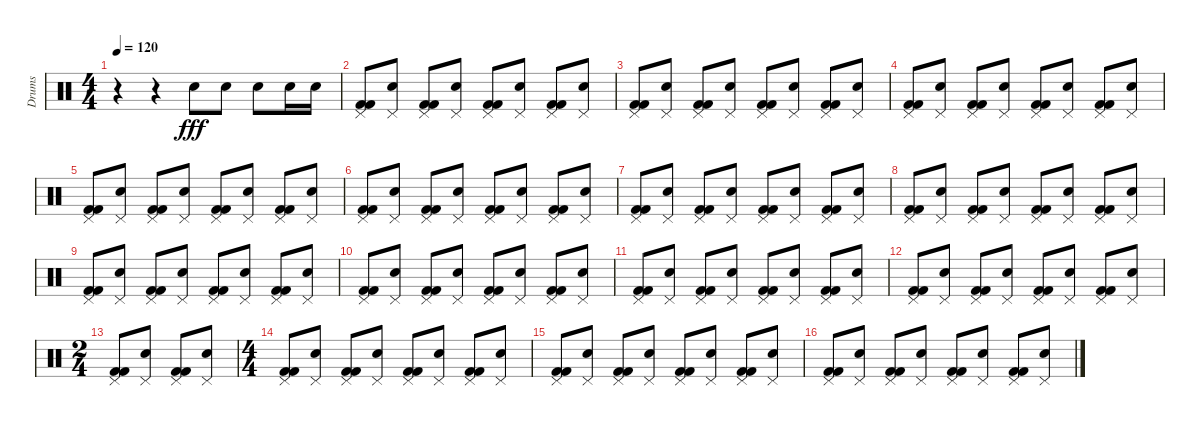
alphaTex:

\track ("Drums" "Drums") {instrument percussion}
\staff {score}
\articulation defaults
\ts (4 4)
\tempo 120
\clef neutral
\ks c
r.4{dy fff} r.4 "Electric Snare (hit)".8 "Electric Snare (hit)".8 "Electric Snare (hit)".8 "Electric Snare (hit)".16 "Electric Snare (hit)".16 |
("Pedal Hi-Hat (hit)" "Kick (hit) 2" "Kick (hit) 2").8 ("Pedal Hi-Hat (hit)" "Electric Snare (hit)").8 ("Pedal Hi-Hat (hit)" "Kick (hit) 2" "Kick (hit) 2").8 ("Pedal Hi-Hat (hit)" "Electric Snare (hit)").8 ("Pedal Hi-Hat (hit)" "Kick (hit) 2" "Kick (hit) 2").8 ("Pedal Hi-Hat (hit)" "Electric Snare (hit)").8 ("Pedal Hi-Hat (hit)" "Kick (hit) 2" "Kick (hit) 2").8 ("Pedal Hi-Hat (hit)" "Electric Snare (hit)").8 |
("Pedal Hi-Hat (hit)" "Kick (hit) 2" "Kick (hit) 2").8 ("Pedal Hi-Hat (hit)" "Electric Snare (hit)").8 ("Pedal Hi-Hat (hit)" "Kick (hit) 2" "Kick (hit) 2").8 ("Pedal Hi-Hat (hit)" "Electric Snare (hit)").8 ("Pedal Hi-Hat (hit)" "Kick (hit) 2" "Kick (hit) 2").8 ("Pedal Hi-Hat (hit)" "Electric Snare (hit)").8 ("Pedal Hi-Hat (hit)" "Kick (hit) 2" "Kick (hit) 2").8 ("Pedal Hi-Hat (hit)" "Electric Snare (hit)").8 |
("Pedal Hi-Hat (hit)" "Kick (hit) 2" "Kick (hit) 2").8 ("Pedal Hi-Hat (hit)" "Electric Snare (hit)").8 ("Pedal Hi-Hat (hit)" "Kick (hit) 2" "Kick (hit) 2").8 ("Pedal Hi-Hat (hit)" "Electric Snare (hit)").8 ("Pedal Hi-Hat (hit)" "Kick (hit) 2" "Kick (hit) 2").8 ("Pedal Hi-Hat (hit)" "Electric Snare (hit)").8 ("Pedal Hi-Hat (hit)" "Kick (hit) 2" "Kick (hit) 2").8 ("Pedal Hi-Hat (hit)" "Electric Snare (hit)").8 |
("Pedal Hi-Hat (hit)" "Kick (hit) 2" "Kick (hit) 2").8 ("Pedal Hi-Hat (hit)" "Electric Snare (hit)").8 ("Pedal Hi-Hat (hit)" "Kick (hit) 2" "Kick (hit) 2").8 ("Pedal Hi-Hat (hit)" "Electric Snare (hit)").8 ("Pedal Hi-Hat (hit)" "Kick (hit) 2" "Kick (hit) 2").8 ("Pedal Hi-Hat (hit)" "Electric Snare (hit)").8 ("Pedal Hi-Hat (hit)" "Kick (hit) 2" "Kick (hit) 2").8 ("Pedal Hi-Hat (hit)" "Electric Snare (hit)").8 |
("Pedal Hi-Hat (hit)" "Kick (hit) 2" "Kick (hit) 2").8 ("Pedal Hi-Hat (hit)" "Electric Snare (hit)").8 ("Pedal Hi-Hat (hit)" "Kick (hit) 2" "Kick (hit) 2").8 ("Pedal Hi-Hat (hit)" "Electric Snare (hit)").8 ("Pedal Hi-Hat (hit)" "Kick (hit) 2" "Kick (hit) 2").8 ("Pedal Hi-Hat (hit)" "Electric Snare (hit)").8 ("Pedal Hi-Hat (hit)" "Kick (hit) 2" "Kick (hit) 2").8 ("Pedal Hi-Hat (hit)" "Electric Snare (hit)").8 |
("Pedal Hi-Hat (hit)" "Kick (hit) 2" "Kick (hit) 2").8 ("Pedal Hi-Hat (hit)" "Electric Snare (hit)").8 ("Pedal Hi-Hat (hit)" "Kick (hit) 2" "Kick (hit) 2").8 ("Pedal Hi-Hat (hit)" "Electric Snare (hit)").8 ("Pedal Hi-Hat (hit)" "Kick (hit) 2" "Kick (hit) 2").8 ("Pedal Hi-Hat (hit)" "Electric Snare (hit)").8 ("Pedal Hi-Hat (hit)" "Kick (hit) 2" "Kick (hit) 2").8 ("Pedal Hi-Hat (hit)" "Electric Snare (hit)").8 |
("Pedal Hi-Hat (hit)" "Kick (hit) 2" "Kick (hit) 2").8 ("Pedal Hi-Hat (hit)" "Electric Snare (hit)").8 ("Pedal Hi-Hat (hit)" "Kick (hit) 2" "Kick (hit) 2").8 ("Pedal Hi-Hat (hit)" "Electric Snare (hit)").8 ("Pedal Hi-Hat (hit)" "Kick (hit) 2" "Kick (hit) 2").8 ("Pedal Hi-Hat (hit)" "Electric Snare (hit)").8 ("Pedal Hi-Hat (hit)" "Kick (hit) 2" "Kick (hit) 2").8 ("Pedal Hi-Hat (hit)" "Electric Snare (hit)").8 |
("Pedal Hi-Hat (hit)" "Kick (hit) 2" "Kick (hit) 2").8 ("Pedal Hi-Hat (hit)" "Electric Snare (hit)").8 ("Pedal Hi-Hat (hit)" "Kick (hit) 2" "Kick (hit) 2").8 ("Pedal Hi-Hat (hit)" "Electric Snare (hit)").8 ("Pedal Hi-Hat (hit)" "Kick (hit) 2" "Kick (hit) 2").8 ("Pedal Hi-Hat (hit)" "Electric Snare (hit)").8 ("Pedal Hi-Hat (hit)" "Kick (hit) 2" "Kick (hit) 2").8 ("Pedal Hi-Hat (hit)" "Electric Snare (hit)").8 |
("Pedal Hi-Hat (hit)" "Kick (hit) 2" "Kick (hit) 2").8 ("Pedal Hi-Hat (hit)" "Electric Snare (hit)").8 ("Pedal Hi-Hat (hit)" "Kick (hit) 2" "Kick (hit) 2").8 ("Pedal Hi-Hat (hit)" "Electric Snare (hit)").8 ("Pedal Hi-Hat (hit)" "Kick (hit) 2" "Kick (hit) 2").8 ("Pedal Hi-Hat (hit)" "Electric Snare (hit)").8 ("Pedal Hi-Hat (hit)" "Kick (hit) 2" "Kick (hit) 2").8 ("Pedal Hi-Hat (hit)" "Electric Snare (hit)").8 |
("Pedal Hi-Hat (hit)" "Kick (hit) 2" "Kick (hit) 2").8 ("Pedal Hi-Hat (hit)" "Electric Snare (hit)").8 ("Pedal Hi-Hat (hit)" "Kick (hit) 2" "Kick (hit) 2").8 ("Pedal Hi-Hat (hit)" "Electric Snare (hit)").8 ("Pedal Hi-Hat (hit)" "Kick (hit) 2" "Kick (hit) 2").8 ("Pedal Hi-Hat (hit)" "Electric Snare (hit)").8 ("Pedal Hi-Hat (hit)" "Kick (hit) 2" "Kick (hit) 2").8 ("Pedal Hi-Hat (hit)" "Electric Snare (hit)").8 |
("Pedal Hi-Hat (hit)" "Kick (hit) 2" "Kick (hit) 2").8 ("Pedal Hi-Hat (hit)" "Electric Snare (hit)").8 ("Pedal Hi-Hat (hit)" "Kick (hit) 2" "Kick (hit) 2").8 ("Pedal Hi-Hat (hit)" "Electric Snare (hit)").8 ("Pedal Hi-Hat (hit)" "Kick (hit) 2" "Kick (hit) 2").8 ("Pedal Hi-Hat (hit)" "Electric Snare (hit)").8 ("Pedal Hi-Hat (hit)" "Kick (hit) 2" "Kick (hit) 2").8 ("Pedal Hi-Hat (hit)" "Electric Snare (hit)").8 |
\ts (2 4)
("Pedal Hi-Hat (hit)" "Kick (hit) 2" "Kick (hit) 2").8 ("Pedal Hi-Hat (hit)" "Electric Snare (hit)").8 ("Pedal Hi-Hat (hit)" "Kick (hit) 2" "Kick (hit) 2").8 ("Pedal Hi-Hat (hit)" "Electric Snare (hit)").8 |
\ts (4 4)
("Pedal Hi-Hat (hit)" "Kick (hit) 2" "Kick (hit) 2").8 ("Pedal Hi-Hat (hit)" "Electric Snare (hit)").8 ("Pedal Hi-Hat (hit)" "Kick (hit) 2" "Kick (hit) 2").8 ("Pedal Hi-Hat (hit)" "Electric Snare (hit)").8 ("Pedal Hi-Hat (hit)" "Kick (hit) 2" "Kick (hit) 2").8 ("Pedal Hi-Hat (hit)" "Electric Snare (hit)").8 ("Pedal Hi-Hat (hit)" "Kick (hit) 2" "Kick (hit) 2").8 ("Pedal Hi-Hat (hit)" "Electric Snare (hit)").8 |
("Pedal Hi-Hat (hit)" "Kick (hit) 2" "Kick (hit) 2").8 ("Pedal Hi-Hat (hit)" "Electric Snare (hit)").8 ("Pedal Hi-Hat (hit)" "Kick (hit) 2" "Kick (hit) 2").8 ("Pedal Hi-Hat (hit)" "Electric Snare (hit)").8 ("Pedal Hi-Hat (hit)" "Kick (hit) 2" "Kick (hit) 2").8 ("Pedal Hi-Hat (hit)" "Electric Snare (hit)").8 ("Pedal Hi-Hat (hit)" "Kick (hit) 2" "Kick (hit) 2").8 ("Pedal Hi-Hat (hit)" "Electric Snare (hit)").8 |
("Pedal Hi-Hat (hit)" "Kick (hit) 2" "Kick (hit) 2").8 ("Pedal Hi-Hat (hit)" "Electric Snare (hit)").8 ("Pedal Hi-Hat (hit)" "Kick (hit) 2" "Kick (hit) 2").8 ("Pedal Hi-Hat (hit)" "Electric Snare (hit)").8 ("Pedal Hi-Hat (hit)" "Kick (hit) 2" "Kick (hit) 2").8 ("Pedal Hi-Hat (hit)" "Electric Snare (hit)").8 ("Pedal Hi-Hat (hit)" "Kick (hit) 2" "Kick (hit) 2").8 ("Pedal Hi-Hat (hit)" "Electric Snare (hit)").8
